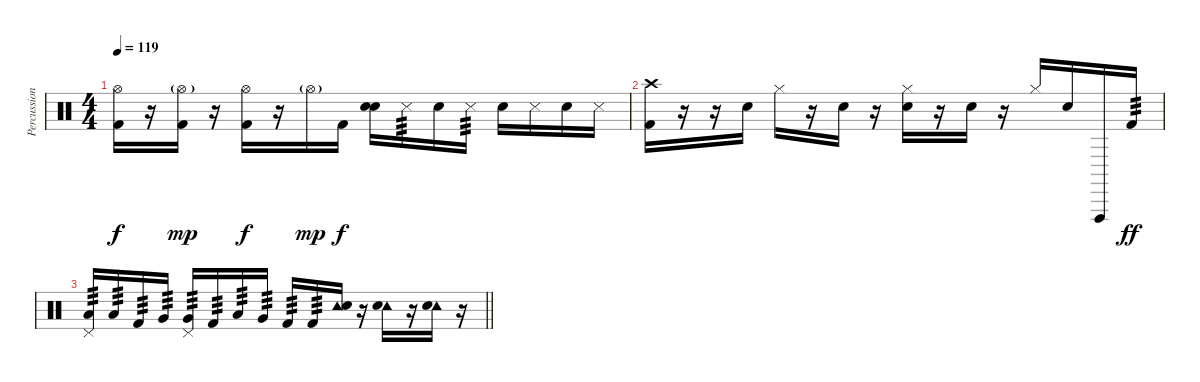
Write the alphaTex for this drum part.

\track ("Percussion" "Percussion") {instrument percussion}
\staff {score}
\articulation defaults
\ts (4 4)
\tempo 119
\clef neutral
\ks c
("Hi-Hat (open)" "Kick (hit) 2").16{dy f} r.16 ("Hi-Hat (open)"{g} "Kick (hit) 2").16{dy mp} r.16 ("Hi-Hat (open)" "Kick (hit) 2").16{dy f} r.16 "Hi-Hat (open)"{g}.16{dy mp} "Kick (hit) 2".16{dy f} ("Snare (hit)" "Snare (hit) 2").16 "Metronome (hit)".16{tp 3} "Snare (hit) 2".16 "Metronome (hit)".16{tp 3} "Snare (hit) 2".16 "Metronome (hit)".16 "Snare (hit) 2".16 "Metronome (hit)".16 |
("Crash high (hit)" "Kick (hit) 2").16 r.16 r.16 "Snare (hit) 2".16 "Hi-Hat (closed)".16 r.16 "Snare (hit) 2".16 r.16 ("Hi-Hat (closed)" "Snare (hit) 2").16 r.16 "Snare (hit) 2".16 r.16 "Hi-Hat (closed)".16 "Snare (hit) 2".16 "Vibraslap (hit)".16 "Kick (hit) 2".16{tp 3 dy ff} |
\barLineRight lightlight
("Pedal Hi-Hat (hit)" "Low Tom (hit)").16{tp 3} "Low Tom (hit)".16{tp 3} "Kick (hit) 2".16{tp 3} "Very Low Tom (hit)".16{tp 3} ("Pedal Hi-Hat (hit)" "Very Low Tom (hit)").16{tp 3} "Kick (hit) 2".16{tp 3} "Low Tom (hit)".16{tp 3} "Very Low Tom (hit)".16{tp 3} "Kick (hit) 2".16{tp 3} "Kick (hit) 2".16{tp 3} ("Tambourine (hit)" "Snare (hit) 2").16 r.16 ("Tambourine (hit)" "Snare (hit) 2").16 r.16 ("Tambourine (hit)" "Snare (hit) 2").16 r.16
